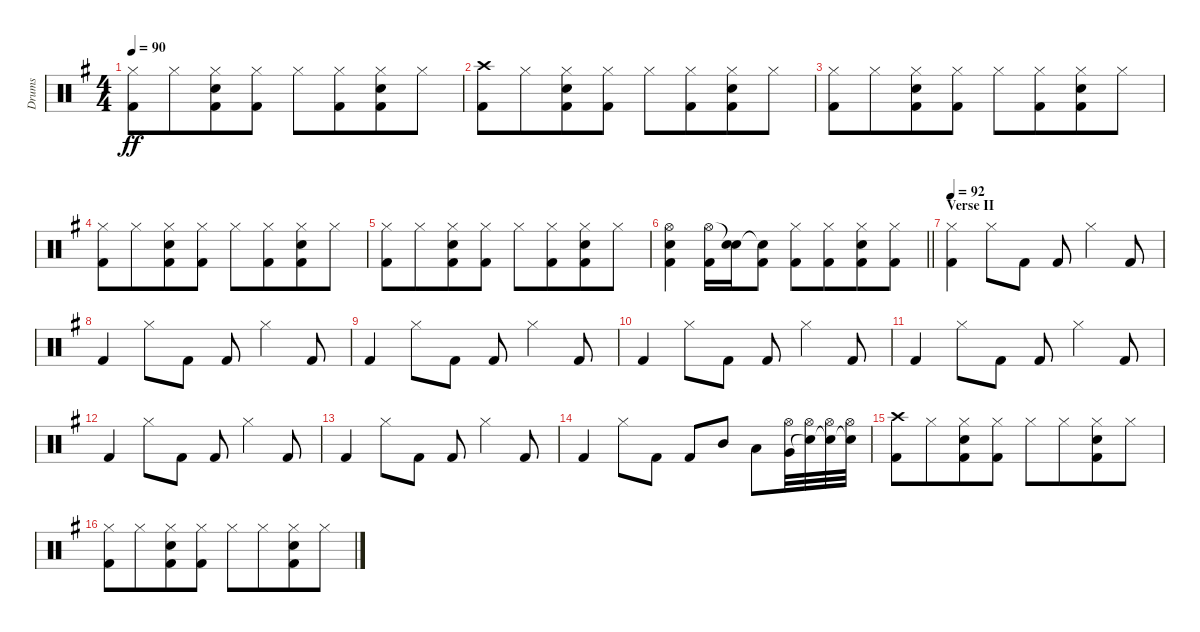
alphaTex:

\track ("Drums" "Drums") {instrument percussion}
\staff {score}
\articulation defaults
\ts (4 4)
\tempo 90
\clef neutral
\ks g
("Hi-Hat (closed)" "Kick (hit) 2").8{dy ff} "Hi-Hat (closed)".8{beam merge} ("Hi-Hat (closed)" "Electric Snare (hit)" "Kick (hit) 2").8 ("Hi-Hat (closed)" "Kick (hit) 2").8 "Hi-Hat (closed)".8 ("Hi-Hat (closed)" "Kick (hit) 2").8{beam merge} ("Hi-Hat (closed)" "Electric Snare (hit)" "Kick (hit) 2").8 "Hi-Hat (closed)".8 |
("Crash high (hit)" "Kick (hit) 2").8 "Hi-Hat (closed)".8{beam merge} ("Hi-Hat (closed)" "Electric Snare (hit)" "Kick (hit) 2").8 ("Hi-Hat (closed)" "Kick (hit) 2").8 "Hi-Hat (closed)".8 ("Hi-Hat (closed)" "Kick (hit) 2").8{beam merge} ("Hi-Hat (closed)" "Electric Snare (hit)" "Kick (hit) 2").8 "Hi-Hat (closed)".8 |
("Hi-Hat (closed)" "Kick (hit) 2").8 "Hi-Hat (closed)".8{beam merge} ("Hi-Hat (closed)" "Electric Snare (hit)" "Kick (hit) 2").8 ("Hi-Hat (closed)" "Kick (hit) 2").8 "Hi-Hat (closed)".8 ("Hi-Hat (closed)" "Kick (hit) 2").8{beam merge} ("Hi-Hat (closed)" "Electric Snare (hit)" "Kick (hit) 2").8 "Hi-Hat (closed)".8 |
("Hi-Hat (closed)" "Kick (hit) 2").8 "Hi-Hat (closed)".8{beam merge} ("Hi-Hat (closed)" "Electric Snare (hit)" "Kick (hit) 2").8 ("Hi-Hat (closed)" "Kick (hit) 2").8 "Hi-Hat (closed)".8 ("Hi-Hat (closed)" "Kick (hit) 2").8{beam merge} ("Hi-Hat (closed)" "Electric Snare (hit)" "Kick (hit) 2").8 "Hi-Hat (closed)".8 |
("Hi-Hat (closed)" "Kick (hit) 2").8 "Hi-Hat (closed)".8{beam merge} ("Hi-Hat (closed)" "Electric Snare (hit)" "Kick (hit) 2").8 ("Hi-Hat (closed)" "Kick (hit) 2").8 "Hi-Hat (closed)".8 ("Hi-Hat (closed)" "Kick (hit) 2").8{beam merge} ("Hi-Hat (closed)" "Electric Snare (hit)" "Kick (hit) 2").8 "Hi-Hat (closed)".8 |
\barLineRight lightlight
("Hi-Hat (open)" "Electric Snare (hit)" "Kick (hit) 2").4 ("Hi-Hat (open)" "Kick (hit) 2").16 ("Snare (hit)"{t} "Electric Snare (hit)").16 ("Snare (hit)"{t} "Kick (hit) 2").8 ("Hi-Hat (closed)" "Kick (hit) 2").8 ("Hi-Hat (closed)" "Kick (hit) 2").8{beam merge} ("Hi-Hat (closed)" "Electric Snare (hit)" "Kick (hit) 2").8 ("Hi-Hat (closed)" "Kick (hit) 2").8 |
\section ("" "Verse II")
\tempo 92
("Hi-Hat (closed)" "Kick (hit) 2").4 "Hi-Hat (closed)".8 "Kick (hit) 2".8 "Kick (hit) 2".8 "Hi-Hat (closed)".4 "Kick (hit) 2".8 |
"Kick (hit) 2".4 "Hi-Hat (closed)".8 "Kick (hit) 2".8 "Kick (hit) 2".8 "Hi-Hat (closed)".4 "Kick (hit) 2".8 |
"Kick (hit) 2".4 "Hi-Hat (closed)".8 "Kick (hit) 2".8 "Kick (hit) 2".8 "Hi-Hat (closed)".4 "Kick (hit) 2".8 |
"Kick (hit) 2".4 "Hi-Hat (closed)".8 "Kick (hit) 2".8 "Kick (hit) 2".8 "Hi-Hat (closed)".4 "Kick (hit) 2".8 |
"Kick (hit) 2".4 "Hi-Hat (closed)".8 "Kick (hit) 2".8 "Kick (hit) 2".8 "Hi-Hat (closed)".4 "Kick (hit) 2".8 |
"Kick (hit) 2".4 "Hi-Hat (closed)".8 "Kick (hit) 2".8 "Kick (hit) 2".8 "Hi-Hat (closed)".4 "Kick (hit) 2".8 |
"Kick (hit) 2".4 "Hi-Hat (closed)".8 "Kick (hit) 2".8 "Kick (hit) 2".8 "Hi-Hat (closed)".4 "Kick (hit) 2".8 |
"Kick (hit) 2".4 "Hi-Hat (closed)".8 "Kick (hit) 2".8 "Kick (hit) 2".8 "Mid Tom (hit)".8 "Low Tom (hit)".8 ("Hi-Hat (open)" "Very Low Tom (hit)").32 ("Hi-Hat (open)" "Snare (hit)"{t}).32 ("Hi-Hat (open)" "Snare (hit)"{t}).32 ("Hi-Hat (open)" "Snare (hit)"{t}).32 |
("Crash high (hit)" "Kick (hit) 2").8 "Hi-Hat (closed)".8{beam merge} ("Hi-Hat (closed)" "Electric Snare (hit)" "Kick (hit) 2").8 ("Hi-Hat (closed)" "Kick (hit) 2").8 "Hi-Hat (closed)".8 "Hi-Hat (closed)".8{beam merge} ("Hi-Hat (closed)" "Electric Snare (hit)" "Kick (hit) 2").8 "Hi-Hat (closed)".8 |
("Hi-Hat (closed)" "Kick (hit) 2").8 "Hi-Hat (closed)".8{beam merge} ("Hi-Hat (closed)" "Electric Snare (hit)" "Kick (hit) 2").8 ("Hi-Hat (closed)" "Kick (hit) 2").8 "Hi-Hat (closed)".8 "Hi-Hat (closed)".8{beam merge} ("Hi-Hat (closed)" "Electric Snare (hit)" "Kick (hit) 2").8 "Hi-Hat (closed)".8
